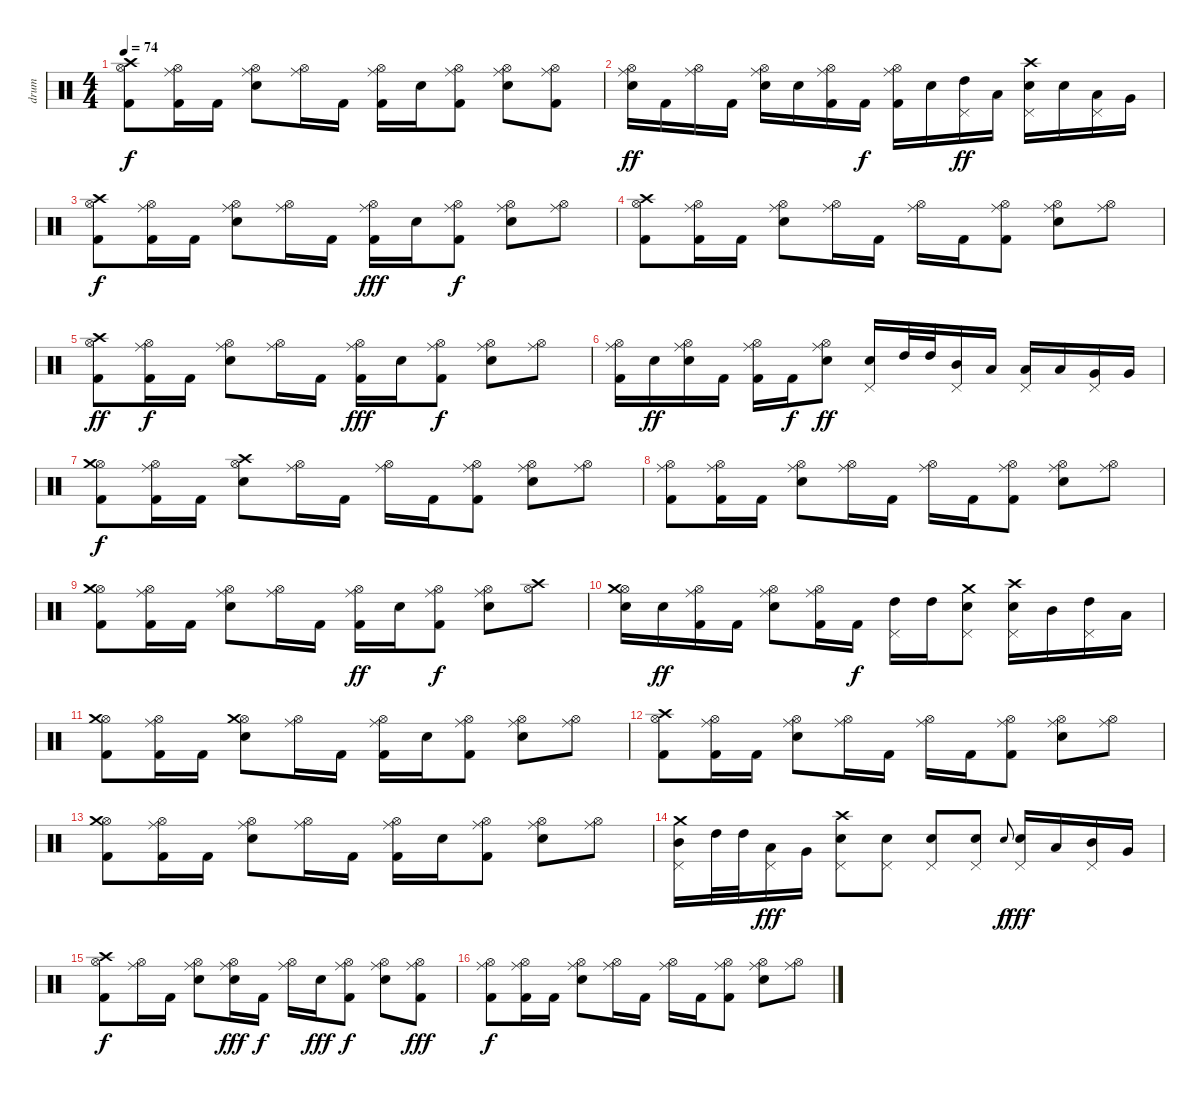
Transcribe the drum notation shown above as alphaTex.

\track ("drum" "drum") {instrument percussion}
\staff {score}
\articulation defaults
\ts (4 4)
\tempo 74
\clef neutral
\ks c
("Hi-Hat (open)" "Crash high (hit)" "Kick (hit) 2").8{dy f} ("Hi-Hat (open)" "Ride (middle)" "Kick (hit) 2").16 "Kick (hit) 2".16 ("Hi-Hat (open)" "Ride (middle)" "Snare (hit) 2").8 ("Hi-Hat (open)" "Ride (middle)").16 "Kick (hit) 2".16 ("Hi-Hat (open)" "Ride (middle)" "Kick (hit) 2").16 "Snare (hit) 2".16 ("Hi-Hat (open)" "Ride (middle)" "Kick (hit) 2").8 ("Hi-Hat (open)" "Ride (middle)" "Snare (hit) 2").8 ("Hi-Hat (open)" "Ride (middle)" "Kick (hit) 2").8 |
("Hi-Hat (open)" "Ride (middle)" "Snare (hit) 2").16{dy ff} "Kick (hit) 2".16 ("Hi-Hat (open)" "Ride (middle)").16 "Kick (hit) 2".16 ("Hi-Hat (open)" "Ride (middle)" "Snare (hit) 2").16 "Snare (hit) 2".16 ("Hi-Hat (open)" "Ride (middle)" "Kick (hit) 2").16 "Kick (hit) 2".16{dy f} ("Hi-Hat (open)" "Ride (middle)" "Kick (hit) 2").16 "Snare (hit) 2".16 ("Pedal Hi-Hat (hit)" "High Tom (hit)").16{dy ff} "Low Tom (hit)".16 ("Pedal Hi-Hat (hit)" "Crash high (hit)" "Snare (hit) 2").16 "Snare (hit) 2".16 ("Pedal Hi-Hat (hit)" "Low Tom (hit)").16 "Very Low Tom (hit)".16 |
("Hi-Hat (open)" "Crash high (hit)" "Kick (hit) 2").8{dy f} ("Hi-Hat (open)" "Ride (middle)" "Kick (hit) 2").16 "Kick (hit) 2".16 ("Hi-Hat (open)" "Ride (middle)" "Snare (hit) 2").8 ("Hi-Hat (open)" "Ride (middle)").16 "Kick (hit) 2".16 ("Hi-Hat (open)" "Ride (middle)" "Kick (hit) 2").16{dy fff} "Snare (hit) 2".16 ("Hi-Hat (open)" "Ride (middle)" "Kick (hit) 2").8{dy f} ("Hi-Hat (open)" "Ride (middle)" "Snare (hit) 2").8 ("Hi-Hat (open)" "Ride (middle)").8 |
("Hi-Hat (open)" "Crash high (hit)" "Kick (hit) 2").8 ("Hi-Hat (open)" "Ride (middle)" "Kick (hit) 2").16 "Kick (hit) 2".16 ("Hi-Hat (open)" "Ride (middle)" "Snare (hit) 2").8 ("Hi-Hat (open)" "Ride (middle)").16 "Kick (hit) 2".16 ("Hi-Hat (open)" "Ride (middle)").16 "Kick (hit) 2".16 ("Hi-Hat (open)" "Ride (middle)" "Kick (hit) 2").8 ("Hi-Hat (open)" "Ride (middle)" "Snare (hit) 2").8 ("Hi-Hat (open)" "Ride (middle)").8 |
("Hi-Hat (open)" "Crash high (hit)" "Kick (hit) 2").8{dy ff} ("Hi-Hat (open)" "Ride (middle)" "Kick (hit) 2").16{dy f} "Kick (hit) 2".16 ("Hi-Hat (open)" "Ride (middle)" "Snare (hit) 2").8 ("Hi-Hat (open)" "Ride (middle)").16 "Kick (hit) 2".16 ("Hi-Hat (open)" "Ride (middle)" "Kick (hit) 2").16{dy fff} "Snare (hit) 2".16 ("Hi-Hat (open)" "Ride (middle)" "Kick (hit) 2").8{dy f} ("Hi-Hat (open)" "Ride (middle)" "Snare (hit) 2").8 ("Hi-Hat (open)" "Ride (middle)").8 |
("Hi-Hat (open)" "Ride (middle)" "Kick (hit) 2").16 "Snare (hit) 2".16{dy ff} ("Hi-Hat (open)" "Ride (middle)" "Snare (hit) 2").16 "Kick (hit) 2".16 ("Hi-Hat (open)" "Ride (middle)" "Kick (hit) 2").16 "Kick (hit) 2".16{dy f} ("Hi-Hat (open)" "Ride (middle)" "Snare (hit) 2").8{dy ff} ("Pedal Hi-Hat (hit)" "Snare (hit) 2").16 "High Tom (hit)".32 "High Tom (hit)".32 ("Pedal Hi-Hat (hit)" "Mid Tom (hit)").16 "Low Tom (hit)".16 ("Pedal Hi-Hat (hit)" "Low Tom (hit)").16 "Low Tom (hit)".16 ("Pedal Hi-Hat (hit)" "Very Low Tom (hit)").16 "Very Low Tom (hit)".16 |
("Hi-Hat (open)" "Crash medium (hit)" "Kick (hit) 2").8{dy f} ("Hi-Hat (open)" "Ride (middle)" "Kick (hit) 2").16 "Kick (hit) 2".16 ("Hi-Hat (open)" "Crash high (hit)" "Snare (hit) 2").8 ("Hi-Hat (open)" "Ride (middle)").16 "Kick (hit) 2".16 ("Hi-Hat (open)" "Ride (middle)").16 "Kick (hit) 2".16 ("Hi-Hat (open)" "Ride (middle)" "Kick (hit) 2").8 ("Hi-Hat (open)" "Ride (middle)" "Snare (hit) 2").8 ("Hi-Hat (open)" "Ride (middle)").8 |
("Hi-Hat (open)" "Ride (middle)" "Kick (hit) 2").8 ("Hi-Hat (open)" "Ride (middle)" "Kick (hit) 2").16 "Kick (hit) 2".16 ("Hi-Hat (open)" "Ride (middle)" "Snare (hit) 2").8 ("Hi-Hat (open)" "Ride (middle)").16 "Kick (hit) 2".16 ("Hi-Hat (open)" "Ride (middle)").16 "Kick (hit) 2".16 ("Hi-Hat (open)" "Ride (middle)" "Kick (hit) 2").8 ("Hi-Hat (open)" "Ride (middle)" "Snare (hit) 2").8 ("Hi-Hat (open)" "Ride (middle)").8 |
("Hi-Hat (open)" "Crash medium (hit)" "Kick (hit) 2").8 ("Hi-Hat (open)" "Ride (middle)" "Kick (hit) 2").16 "Kick (hit) 2".16 ("Hi-Hat (open)" "Ride (middle)" "Snare (hit) 2").8 ("Hi-Hat (open)" "Ride (middle)").16 "Kick (hit) 2".16 ("Hi-Hat (open)" "Ride (middle)" "Kick (hit) 2").16{dy ff} "Snare (hit) 2".16 ("Hi-Hat (open)" "Ride (middle)" "Kick (hit) 2").8{dy f} ("Hi-Hat (open)" "Ride (middle)" "Snare (hit) 2").8 ("Hi-Hat (open)" "Crash high (hit)").8 |
("Hi-Hat (open)" "Crash medium (hit)" "Snare (hit) 2").16 "Snare (hit) 2".16{dy ff} ("Hi-Hat (open)" "Ride (middle)" "Kick (hit) 2").16 "Kick (hit) 2".16 ("Hi-Hat (open)" "Ride (middle)" "Snare (hit) 2").8 ("Hi-Hat (open)" "Ride (middle)" "Kick (hit) 2").16 "Kick (hit) 2".16{dy f} ("Pedal Hi-Hat (hit)" "High Tom (hit)").16 "High Tom (hit)".16 ("Pedal Hi-Hat (hit)" "Crash medium (hit)" "Snare (hit) 2").8 ("Pedal Hi-Hat (hit)" "Crash high (hit)" "Snare (hit) 2").16 "Mid Tom (hit)".16 ("Pedal Hi-Hat (hit)" "High Tom (hit)").16 "Low Tom (hit)".16 |
("Hi-Hat (open)" "Crash medium (hit)" "Kick (hit) 2").8 ("Hi-Hat (open)" "Ride (middle)" "Kick (hit) 2").16 "Kick (hit) 2".16 ("Hi-Hat (open)" "Crash medium (hit)" "Snare (hit) 2").8 ("Hi-Hat (open)" "Ride (middle)").16 "Kick (hit) 2".16 ("Hi-Hat (open)" "Ride (middle)" "Kick (hit) 2").16 "Snare (hit) 2".16 ("Hi-Hat (open)" "Ride (middle)" "Kick (hit) 2").8 ("Hi-Hat (open)" "Ride (middle)" "Snare (hit) 2").8 ("Hi-Hat (open)" "Ride (middle)").8 |
("Hi-Hat (open)" "Crash high (hit)" "Kick (hit) 2").8 ("Hi-Hat (open)" "Ride (middle)" "Kick (hit) 2").16 "Kick (hit) 2".16 ("Hi-Hat (open)" "Ride (middle)" "Snare (hit) 2").8 ("Hi-Hat (open)" "Ride (middle)").16 "Kick (hit) 2".16 ("Hi-Hat (open)" "Ride (middle)").16 "Kick (hit) 2".16 ("Hi-Hat (open)" "Ride (middle)" "Kick (hit) 2").8 ("Hi-Hat (open)" "Ride (middle)" "Snare (hit) 2").8 ("Hi-Hat (open)" "Ride (middle)").8 |
("Hi-Hat (open)" "Crash medium (hit)" "Kick (hit) 2").8 ("Hi-Hat (open)" "Ride (middle)" "Kick (hit) 2").16 "Kick (hit) 2".16 ("Hi-Hat (open)" "Ride (middle)" "Snare (hit) 2").8 ("Hi-Hat (open)" "Ride (middle)").16 "Kick (hit) 2".16 ("Hi-Hat (open)" "Ride (middle)" "Kick (hit) 2").16 "Snare (hit) 2".16 ("Hi-Hat (open)" "Ride (middle)" "Kick (hit) 2").8 ("Hi-Hat (open)" "Ride (middle)" "Snare (hit) 2").8 ("Hi-Hat (open)" "Ride (middle)").8 |
("Pedal Hi-Hat (hit)" "Crash medium (hit)" "Mid Tom (hit)").16 "High Tom (hit)".32 "High Tom (hit)".32 ("Pedal Hi-Hat (hit)" "Low Tom (hit)").16{dy fff} "Very Low Tom (hit)".16 ("Pedal Hi-Hat (hit)" "Crash high (hit)" "Snare (hit) 2").8 ("Pedal Hi-Hat (hit)" "Snare (hit) 2").8 ("Pedal Hi-Hat (hit)" "Snare (hit) 2").8 ("Pedal Hi-Hat (hit)" "Snare (hit) 2").8 "Snare (hit) 2".8{gr onbeat dy f} ("Pedal Hi-Hat (hit)" "Snare (hit) 2").16{dy fff} "Low Tom (hit)".16 ("Pedal Hi-Hat (hit)" "Mid Tom (hit)").16 "Very Low Tom (hit)".16 |
("Hi-Hat (open)" "Crash high (hit)" "Kick (hit) 2").8{dy f} ("Hi-Hat (open)" "Ride (middle)").16 "Kick (hit) 2".16 ("Hi-Hat (open)" "Ride (middle)" "Snare (hit) 2").8 ("Hi-Hat (open)" "Ride (middle)" "Snare (hit) 2").16{dy fff} "Kick (hit) 2".16{dy f} ("Hi-Hat (open)" "Ride (middle)").16 "Snare (hit) 2".16{dy fff} ("Hi-Hat (open)" "Ride (middle)" "Kick (hit) 2").8{dy f} ("Hi-Hat (open)" "Ride (middle)" "Snare (hit) 2").8 ("Hi-Hat (open)" "Ride (middle)" "Kick (hit) 2").8{dy fff} |
("Hi-Hat (open)" "Ride (middle)" "Kick (hit) 2").8{dy f} ("Hi-Hat (open)" "Ride (middle)" "Kick (hit) 2").16 "Kick (hit) 2".16 ("Hi-Hat (open)" "Ride (middle)" "Snare (hit) 2").8 ("Hi-Hat (open)" "Ride (middle)").16 "Kick (hit) 2".16 ("Hi-Hat (open)" "Ride (middle)").16 "Kick (hit) 2".16 ("Hi-Hat (open)" "Ride (middle)" "Kick (hit) 2").8 ("Hi-Hat (open)" "Ride (middle)" "Snare (hit) 2").8 ("Hi-Hat (open)" "Ride (middle)").8
